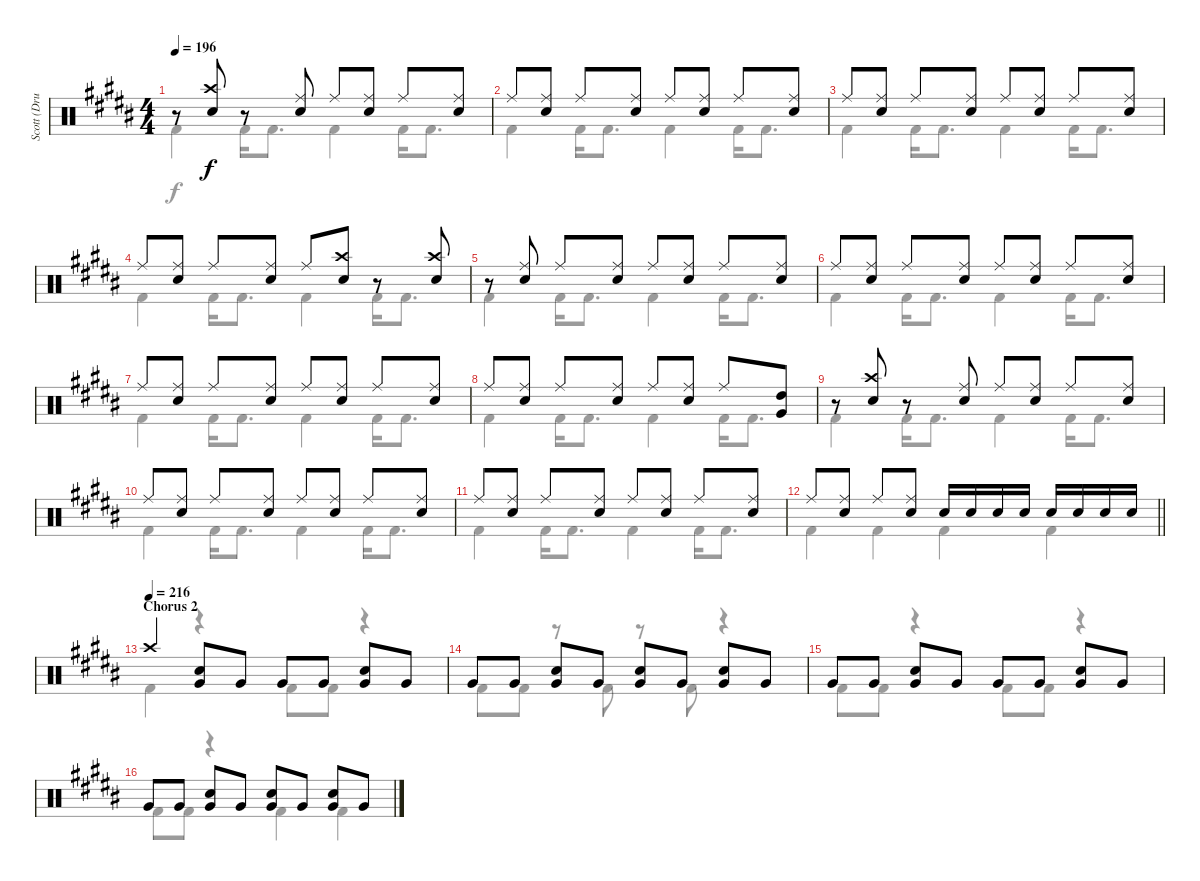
\track ("Scott (Drums)" "Scott (Dru") {instrument percussion}
\staff {score}
\articulation defaults
\voice
\ts (4 4)
\tempo 196
\clef neutral
\ks b
r.8{dy f} ("Crash high (hit)" "Electric Snare (hit)").8 r.8 ("Ride (middle)" "Electric Snare (hit)").8 "Ride (middle)".8 ("Ride (middle)" "Electric Snare (hit)").8 "Ride (middle)".8 ("Ride (middle)" "Electric Snare (hit)").8 |
"Ride (middle)".8 ("Ride (middle)" "Electric Snare (hit)").8 "Ride (middle)".8 ("Ride (middle)" "Electric Snare (hit)").8 "Ride (middle)".8 ("Ride (middle)" "Electric Snare (hit)").8 "Ride (middle)".8 ("Ride (middle)" "Electric Snare (hit)").8 |
"Ride (middle)".8 ("Ride (middle)" "Electric Snare (hit)").8 "Ride (middle)".8 ("Ride (middle)" "Electric Snare (hit)").8 "Ride (middle)".8 ("Ride (middle)" "Electric Snare (hit)").8 "Ride (middle)".8 ("Ride (middle)" "Electric Snare (hit)").8 |
"Ride (middle)".8 ("Ride (middle)" "Electric Snare (hit)").8 "Ride (middle)".8 ("Ride (middle)" "Electric Snare (hit)").8 "Ride (middle)".8 ("Crash high (hit)" "Electric Snare (hit)").8 r.8 ("Crash high (hit)" "Electric Snare (hit)").8 |
r.8 ("Ride (middle)" "Electric Snare (hit)").8 "Ride (middle)".8 ("Ride (middle)" "Electric Snare (hit)").8 "Ride (middle)".8 ("Ride (middle)" "Electric Snare (hit)").8 "Ride (middle)".8 ("Ride (middle)" "Electric Snare (hit)").8 |
"Ride (middle)".8 ("Ride (middle)" "Electric Snare (hit)").8 "Ride (middle)".8 ("Ride (middle)" "Electric Snare (hit)").8 "Ride (middle)".8 ("Ride (middle)" "Electric Snare (hit)").8 "Ride (middle)".8 ("Ride (middle)" "Electric Snare (hit)").8 |
"Ride (middle)".8 ("Ride (middle)" "Electric Snare (hit)").8 "Ride (middle)".8 ("Ride (middle)" "Electric Snare (hit)").8 "Ride (middle)".8 ("Ride (middle)" "Electric Snare (hit)").8 "Ride (middle)".8 ("Ride (middle)" "Electric Snare (hit)").8 |
"Ride (middle)".8 ("Ride (middle)" "Electric Snare (hit)").8 "Ride (middle)".8 ("Ride (middle)" "Electric Snare (hit)").8 "Ride (middle)".8 ("Ride (middle)" "Electric Snare (hit)").8 "Ride (middle)".8 ("High Tom (hit)" "Very Low Tom (hit)").8 |
r.8 ("Crash high (hit)" "Electric Snare (hit)").8 r.8 ("Ride (middle)" "Electric Snare (hit)").8 "Ride (middle)".8 ("Ride (middle)" "Electric Snare (hit)").8 "Ride (middle)".8 ("Ride (middle)" "Electric Snare (hit)").8 |
"Ride (middle)".8 ("Ride (middle)" "Electric Snare (hit)").8 "Ride (middle)".8 ("Ride (middle)" "Electric Snare (hit)").8 "Ride (middle)".8 ("Ride (middle)" "Electric Snare (hit)").8 "Ride (middle)".8 ("Ride (middle)" "Electric Snare (hit)").8 |
"Ride (middle)".8 ("Ride (middle)" "Electric Snare (hit)").8 "Ride (middle)".8 ("Ride (middle)" "Electric Snare (hit)").8 "Ride (middle)".8 ("Ride (middle)" "Electric Snare (hit)").8 "Ride (middle)".8 ("Ride (middle)" "Electric Snare (hit)").8 |
\barLineRight lightlight "Ride (middle)".8
("Ride (middle)" "Electric Snare (hit)").8 "Ride (middle)".8 ("Ride (middle)" "Electric Snare (hit)").8 "Electric Snare (hit)".16 "Electric Snare (hit)".16 "Electric Snare (hit)".16 "Electric Snare (hit)".16 "Electric Snare (hit)".16 "Electric Snare (hit)".16 "Electric Snare (hit)".16 "Electric Snare (hit)".16 |
\section ("" "Chorus 2")
\tempo (216)
"Crash high (hit)".4 ("Electric Snare (hit)" "Very Low Tom (hit)").8 "Very Low Tom (hit)".8 "Very Low Tom (hit)".8 "Very Low Tom (hit)".8 ("Very Low Tom (hit)" "Electric Snare (hit)").8 "Very Low Tom (hit)".8 |
"Very Low Tom (hit)".8 "Very Low Tom (hit)".8 ("Very Low Tom (hit)" "Electric Snare (hit)").8 "Very Low Tom (hit)".8 ("Very Low Tom (hit)" "Electric Snare (hit)").8 "Very Low Tom (hit)".8 ("Very Low Tom (hit)" "Electric Snare (hit)").8 "Very Low Tom (hit)".8 |
"Very Low Tom (hit)".8 "Very Low Tom (hit)".8 ("Very Low Tom (hit)" "Electric Snare (hit)").8 "Very Low Tom (hit)".8 "Very Low Tom (hit)".8 "Very Low Tom (hit)".8 ("Very Low Tom (hit)" "Electric Snare (hit)").8 "Very Low Tom (hit)".8 |
"Very Low Tom (hit)".8 "Very Low Tom (hit)".8 ("Very Low Tom (hit)" "Electric Snare (hit)").8 "Very Low Tom (hit)".8 ("Very Low Tom (hit)" "Electric Snare (hit)").8 "Very Low Tom (hit)".8 ("Very Low Tom (hit)" "Electric Snare (hit)").8 "Very Low Tom (hit)".8
\voice
\clef neutral
\ottava regular
\simile none
\ks b "Kick (hit) 2".4{dy f} "Kick (hit) 2".16 "Kick (hit) 2".8{d} "Kick (hit) 2".4 "Kick (hit) 2".16 "Kick (hit) 2".8{d}
|
"Kick (hit) 2".4 "Kick (hit) 2".16 "Kick (hit) 2".8{d} "Kick (hit) 2".4 "Kick (hit) 2".16 "Kick (hit) 2".8{d} |
"Kick (hit) 2".4 "Kick (hit) 2".16 "Kick (hit) 2".8{d} "Kick (hit) 2".4 "Kick (hit) 2".16 "Kick (hit) 2".8{d} |
"Kick (hit) 2".4 "Kick (hit) 2".16 "Kick (hit) 2".8{d} "Kick (hit) 2".4 "Kick (hit) 2".16 "Kick (hit) 2".8{d} |
"Kick (hit) 2".4 "Kick (hit) 2".16 "Kick (hit) 2".8{d} "Kick (hit) 2".4 "Kick (hit) 2".16 "Kick (hit) 2".8{d} |
"Kick (hit) 2".4 "Kick (hit) 2".16 "Kick (hit) 2".8{d} "Kick (hit) 2".4 "Kick (hit) 2".16 "Kick (hit) 2".8{d} |
"Kick (hit) 2".4 "Kick (hit) 2".16 "Kick (hit) 2".8{d} "Kick (hit) 2".4 "Kick (hit) 2".16 "Kick (hit) 2".8{d} |
"Kick (hit) 2".4 "Kick (hit) 2".16 "Kick (hit) 2".8{d} "Kick (hit) 2".4 "Kick (hit) 2".16 "Kick (hit) 2".8{d} |
"Kick (hit) 2".4 "Kick (hit) 2".16 "Kick (hit) 2".8{d} "Kick (hit) 2".4 "Kick (hit) 2".16 "Kick (hit) 2".8{d} |
"Kick (hit) 2".4 "Kick (hit) 2".16 "Kick (hit) 2".8{d} "Kick (hit) 2".4 "Kick (hit) 2".16 "Kick (hit) 2".8{d} |
"Kick (hit) 2".4 "Kick (hit) 2".16 "Kick (hit) 2".8{d} "Kick (hit) 2".4 "Kick (hit) 2".16 "Kick (hit) 2".8{d} |
\barLineRight lightlight "Kick (hit) 2".4 "Kick (hit) 2".4 "Kick (hit) 2".4 "Kick (hit) 2".4
|
"Kick (hit) 2".4 r.4 "Kick (hit) 2".8 "Kick (hit) 2".8 r.4 |
"Kick (hit) 2".8 "Kick (hit) 2".8 r.8 "Kick (hit) 2".8 r.8 "Kick (hit) 2".8 r.4 |
"Kick (hit) 2".8 "Kick (hit) 2".8 r.4 "Kick (hit) 2".8 "Kick (hit) 2".8 r.4 |
"Kick (hit) 2".8 "Kick (hit) 2".8 r.4 "Kick (hit) 2".4 "Kick (hit) 2".4
